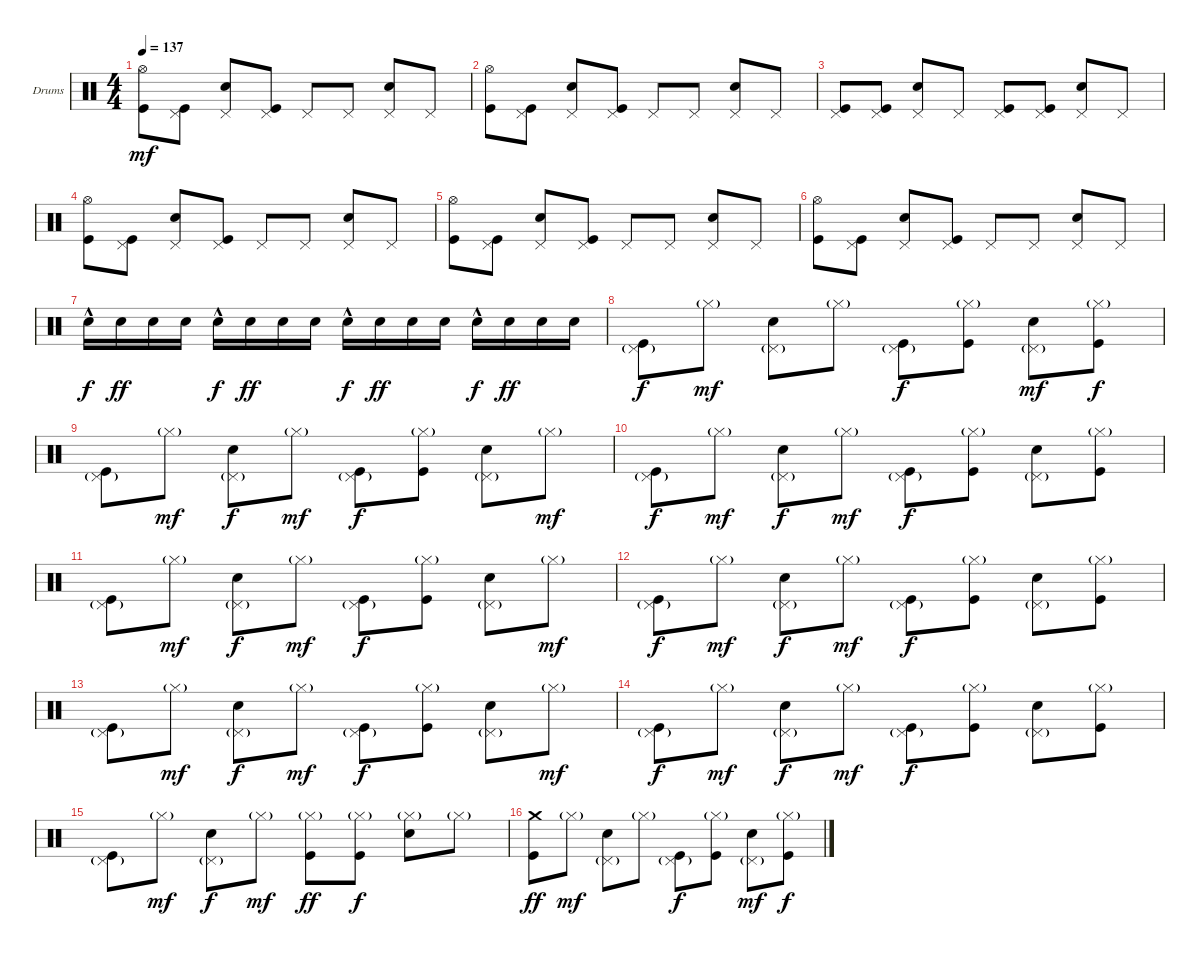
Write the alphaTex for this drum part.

\bracketExtendMode groupsimilarinstruments
\firstSystemTrackNameOrientation horizontal
\otherSystemsTrackNameOrientation horizontal
\track ("Drumkit (Christoph)" "Drums") {instrument percussion}
\staff {score}
\articulation defaults
\ts (4 4)
\tempo 137
\clef neutral
\ks c
("Hi-Hat (open)" "Kick (hit)").8{dy mf} ("Pedal Hi-Hat (hit)" "Kick (hit)").8 ("Pedal Hi-Hat (hit)" "Snare (hit) 2").8 ("Pedal Hi-Hat (hit)" "Kick (hit)").8 "Pedal Hi-Hat (hit)".8 "Pedal Hi-Hat (hit)".8 ("Pedal Hi-Hat (hit)" "Snare (hit) 2").8 "Pedal Hi-Hat (hit)".8 |
("Hi-Hat (open)" "Kick (hit)").8 ("Pedal Hi-Hat (hit)" "Kick (hit)").8 ("Pedal Hi-Hat (hit)" "Snare (hit) 2").8 ("Pedal Hi-Hat (hit)" "Kick (hit)").8 "Pedal Hi-Hat (hit)".8 "Pedal Hi-Hat (hit)".8 ("Pedal Hi-Hat (hit)" "Snare (hit) 2").8 "Pedal Hi-Hat (hit)".8 |
("Pedal Hi-Hat (hit)" "Kick (hit)").8 ("Pedal Hi-Hat (hit)" "Kick (hit)").8 ("Pedal Hi-Hat (hit)" "Snare (hit) 2").8 "Pedal Hi-Hat (hit)".8 ("Pedal Hi-Hat (hit)" "Kick (hit)").8 ("Pedal Hi-Hat (hit)" "Kick (hit)").8 ("Pedal Hi-Hat (hit)" "Snare (hit) 2").8 "Pedal Hi-Hat (hit)".8 |
("Hi-Hat (open)" "Kick (hit)").8 ("Pedal Hi-Hat (hit)" "Kick (hit)").8 ("Pedal Hi-Hat (hit)" "Snare (hit) 2").8 ("Pedal Hi-Hat (hit)" "Kick (hit)").8 "Pedal Hi-Hat (hit)".8 "Pedal Hi-Hat (hit)".8 ("Pedal Hi-Hat (hit)" "Snare (hit) 2").8 "Pedal Hi-Hat (hit)".8 |
("Hi-Hat (open)" "Kick (hit)").8 ("Pedal Hi-Hat (hit)" "Kick (hit)").8 ("Pedal Hi-Hat (hit)" "Snare (hit) 2").8 ("Pedal Hi-Hat (hit)" "Kick (hit)").8 "Pedal Hi-Hat (hit)".8 "Pedal Hi-Hat (hit)".8 ("Pedal Hi-Hat (hit)" "Snare (hit) 2").8 "Pedal Hi-Hat (hit)".8 |
("Hi-Hat (open)" "Kick (hit)").8 ("Pedal Hi-Hat (hit)" "Kick (hit)").8 ("Pedal Hi-Hat (hit)" "Snare (hit) 2").8 ("Pedal Hi-Hat (hit)" "Kick (hit)").8 "Pedal Hi-Hat (hit)".8 "Pedal Hi-Hat (hit)".8 ("Pedal Hi-Hat (hit)" "Snare (hit) 2").8 "Pedal Hi-Hat (hit)".8 |
"Snare (hit) 2"{hac}.16{dy f} "Snare (hit) 2".16{dy ff} "Snare (hit) 2".16 "Snare (hit) 2".16 "Snare (hit) 2"{hac}.16{dy f} "Snare (hit) 2".16{dy ff} "Snare (hit) 2".16 "Snare (hit) 2".16 "Snare (hit) 2"{hac}.16{dy f} "Snare (hit) 2".16{dy ff} "Snare (hit) 2".16 "Snare (hit) 2".16 "Snare (hit) 2"{hac}.16{dy f} "Snare (hit) 2".16{dy ff} "Snare (hit) 2".16 "Snare (hit) 2".16 |
("Pedal Hi-Hat (hit)"{g} "Kick (hit)").8{dy f} "Hi-Hat (closed)"{g}.8{dy mf} ("Pedal Hi-Hat (hit)"{g} "Snare (hit) 2").8 "Hi-Hat (closed)"{g}.8 ("Pedal Hi-Hat (hit)"{g} "Kick (hit)").8{dy f} ("Hi-Hat (closed)"{g} "Kick (hit)").8 ("Pedal Hi-Hat (hit)"{g} "Snare (hit) 2").8{dy mf} ("Hi-Hat (closed)"{g} "Kick (hit)").8{dy f} |
("Pedal Hi-Hat (hit)"{g} "Kick (hit)").8 "Hi-Hat (closed)"{g}.8{dy mf} ("Pedal Hi-Hat (hit)"{g} "Snare (hit) 2").8{dy f} "Hi-Hat (closed)"{g}.8{dy mf} ("Pedal Hi-Hat (hit)"{g} "Kick (hit)").8{dy f} ("Hi-Hat (closed)"{g} "Kick (hit)").8 ("Pedal Hi-Hat (hit)"{g} "Snare (hit) 2").8 "Hi-Hat (closed)"{g}.8{dy mf} |
("Pedal Hi-Hat (hit)"{g} "Kick (hit)").8{dy f} "Hi-Hat (closed)"{g}.8{dy mf} ("Pedal Hi-Hat (hit)"{g} "Snare (hit) 2").8{dy f} "Hi-Hat (closed)"{g}.8{dy mf} ("Pedal Hi-Hat (hit)"{g} "Kick (hit)").8{dy f} ("Hi-Hat (closed)"{g} "Kick (hit)").8 ("Pedal Hi-Hat (hit)"{g} "Snare (hit) 2").8 ("Hi-Hat (closed)"{g} "Kick (hit)").8 |
("Pedal Hi-Hat (hit)"{g} "Kick (hit)").8 "Hi-Hat (closed)"{g}.8{dy mf} ("Pedal Hi-Hat (hit)"{g} "Snare (hit) 2").8{dy f} "Hi-Hat (closed)"{g}.8{dy mf} ("Pedal Hi-Hat (hit)"{g} "Kick (hit)").8{dy f} ("Hi-Hat (closed)"{g} "Kick (hit)").8 ("Pedal Hi-Hat (hit)"{g} "Snare (hit) 2").8 "Hi-Hat (closed)"{g}.8{dy mf} |
("Pedal Hi-Hat (hit)"{g} "Kick (hit)").8{dy f} "Hi-Hat (closed)"{g}.8{dy mf} ("Pedal Hi-Hat (hit)"{g} "Snare (hit) 2").8{dy f} "Hi-Hat (closed)"{g}.8{dy mf} ("Pedal Hi-Hat (hit)"{g} "Kick (hit)").8{dy f} ("Hi-Hat (closed)"{g} "Kick (hit)").8 ("Pedal Hi-Hat (hit)"{g} "Snare (hit) 2").8 ("Hi-Hat (closed)"{g} "Kick (hit)").8 |
("Pedal Hi-Hat (hit)"{g} "Kick (hit)").8 "Hi-Hat (closed)"{g}.8{dy mf} ("Pedal Hi-Hat (hit)"{g} "Snare (hit) 2").8{dy f} "Hi-Hat (closed)"{g}.8{dy mf} ("Pedal Hi-Hat (hit)"{g} "Kick (hit)").8{dy f} ("Hi-Hat (closed)"{g} "Kick (hit)").8 ("Pedal Hi-Hat (hit)"{g} "Snare (hit) 2").8 "Hi-Hat (closed)"{g}.8{dy mf} |
("Pedal Hi-Hat (hit)"{g} "Kick (hit)").8{dy f} "Hi-Hat (closed)"{g}.8{dy mf} ("Pedal Hi-Hat (hit)"{g} "Snare (hit) 2").8{dy f} "Hi-Hat (closed)"{g}.8{dy mf} ("Pedal Hi-Hat (hit)"{g} "Kick (hit)").8{dy f} ("Hi-Hat (closed)"{g} "Kick (hit)").8 ("Pedal Hi-Hat (hit)"{g} "Snare (hit) 2").8 ("Hi-Hat (closed)"{g} "Kick (hit)").8 |
("Pedal Hi-Hat (hit)"{g} "Kick (hit)").8 "Hi-Hat (closed)"{g}.8{dy mf} ("Pedal Hi-Hat (hit)"{g} "Snare (hit) 2").8{dy f} "Hi-Hat (closed)"{g}.8{dy mf} ("Hi-Hat (closed)"{g} "Kick (hit)").8{dy ff} ("Hi-Hat (closed)"{g} "Kick (hit)").8{dy f} ("Hi-Hat (closed)"{g} "Snare (hit) 2").8 "Hi-Hat (closed)"{g}.8 |
("Crash medium (hit)" "Kick (hit)").8{dy ff} "Hi-Hat (closed)"{g}.8{dy mf} ("Pedal Hi-Hat (hit)"{g} "Snare (hit) 2").8 "Hi-Hat (closed)"{g}.8 ("Pedal Hi-Hat (hit)"{g} "Kick (hit)").8{dy f} ("Hi-Hat (closed)"{g} "Kick (hit)").8 ("Pedal Hi-Hat (hit)"{g} "Snare (hit) 2").8{dy mf} ("Hi-Hat (closed)"{g} "Kick (hit)").8{dy f}
